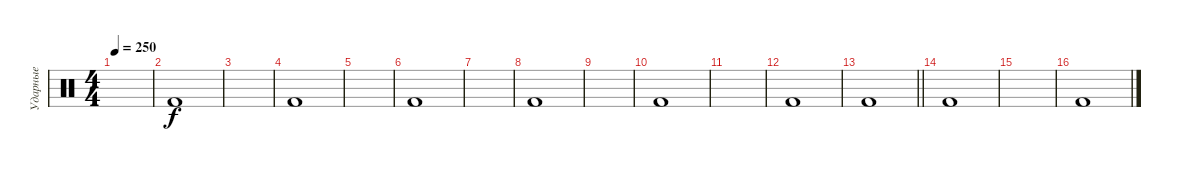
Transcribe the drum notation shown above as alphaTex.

\track ("Ударные" "Ударные") {instrument percussion}
\staff {score}
\articulation defaults
\ts (4 4)
\tempo 250
\clef neutral
\ks c
|
"Kick (hit) 2".1 |
|
"Kick (hit) 2".1 |
|
"Kick (hit) 2".1 |
|
"Kick (hit) 2".1 |
|
"Kick (hit) 2".1 |
|
"Kick (hit) 2".1 |
\barLineRight lightlight "Kick (hit) 2".1
|
"Kick (hit) 2".1 |
|
"Kick (hit) 2".1
